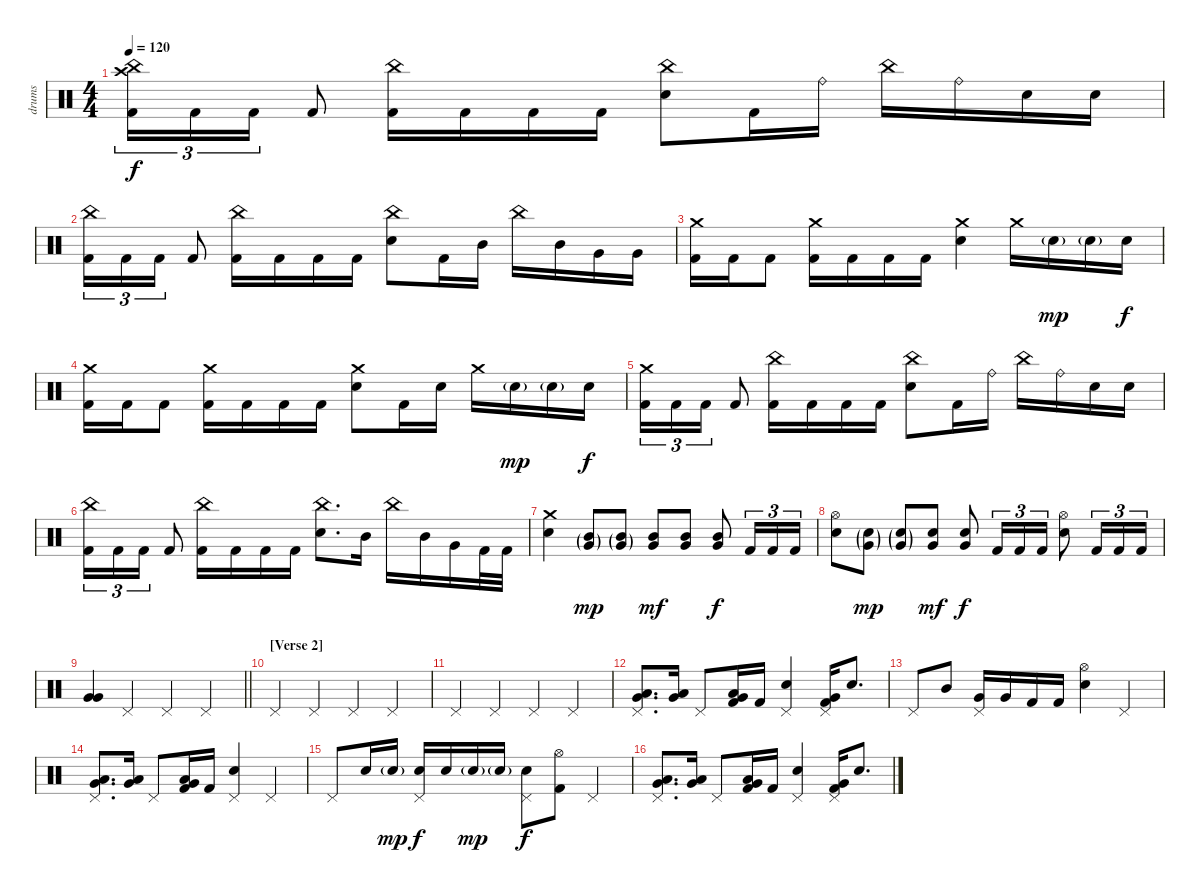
\track ("drums" "drums") {instrument percussion}
\staff {score}
\articulation defaults
\ts (4 4)
\tempo 120
\clef neutral
\ks c
("China (hit)" "Crash high (hit)" "Kick (hit) 2").16{tu (3 2) dy f} "Kick (hit) 2".16{tu (3 2)} "Kick (hit) 2".16{tu (3 2)} "Kick (hit) 2".8 ("China (hit)" "Kick (hit) 2").16 "Kick (hit) 2".16 "Kick (hit) 2".16 "Kick (hit) 2".16 ("China (hit)" "Electric Snare (hit)").8 "Kick (hit) 2".16 "Ride (bell)".16 "China (hit)".16 "Ride (bell)".16 "Electric Snare (hit)".16 "Electric Snare (hit)".16 |
("China (hit)" "Kick (hit) 2").16{tu (3 2)} "Kick (hit) 2".16{tu (3 2)} "Kick (hit) 2".16{tu (3 2)} "Kick (hit) 2".8 ("China (hit)" "Kick (hit) 2").16 "Kick (hit) 2".16 "Kick (hit) 2".16 "Kick (hit) 2".16 ("China (hit)" "Electric Snare (hit)").8 "Kick (hit) 2".16 "Mid Tom (hit)".16 "China (hit)".16 "Mid Tom (hit)".16 "Very Low Tom (hit)".16 "Very Low Tom (hit)".16 |
("Crash medium (hit)" "Kick (hit) 2").16 "Kick (hit) 2".16 "Kick (hit) 2".8 ("Crash medium (hit)" "Kick (hit) 2").16 "Kick (hit) 2".16 "Kick (hit) 2".16 "Kick (hit) 2".16 ("Crash medium (hit)" "Electric Snare (hit)").4 "Crash medium (hit)".16 "Electric Snare (hit)"{g}.16{dy mp} "Electric Snare (hit)"{g}.16 "Electric Snare (hit)".16{dy f} |
("Crash medium (hit)" "Kick (hit) 2").16 "Kick (hit) 2".16 "Kick (hit) 2".8 ("Crash medium (hit)" "Kick (hit) 2").16 "Kick (hit) 2".16 "Kick (hit) 2".16 "Kick (hit) 2".16 ("Crash medium (hit)" "Electric Snare (hit)").8 "Kick (hit) 2".16 "Electric Snare (hit)".16 "Crash medium (hit)".16 "Electric Snare (hit)"{g}.16{dy mp} "Electric Snare (hit)"{g}.16 "Electric Snare (hit)".16{dy f} |
("Crash medium (hit)" "Kick (hit) 2").16{tu (3 2)} "Kick (hit) 2".16{tu (3 2)} "Kick (hit) 2".16{tu (3 2)} "Kick (hit) 2".8 ("China (hit)" "Kick (hit) 2").16 "Kick (hit) 2".16 "Kick (hit) 2".16 "Kick (hit) 2".16 ("China (hit)" "Electric Snare (hit)").8 "Kick (hit) 2".16 "Ride (bell)".16 "China (hit)".16 "Ride (bell)".16 "Electric Snare (hit)".16 "Electric Snare (hit)".16 |
("China (hit)" "Kick (hit) 2").16{tu (3 2)} "Kick (hit) 2".16{tu (3 2)} "Kick (hit) 2".16{tu (3 2)} "Kick (hit) 2".8 ("China (hit)" "Kick (hit) 2").16 "Kick (hit) 2".16 "Kick (hit) 2".16 "Kick (hit) 2".16 ("China (hit)" "Electric Snare (hit)").8{d} "Mid Tom (hit)".16 "China (hit)".16 "Mid Tom (hit)".16 "Very Low Tom (hit)".16 "Kick (hit) 2".32 "Kick (hit) 2".32 |
("Crash medium (hit)" "Electric Snare (hit)").4 ("Very Low Tom (hit)"{g} "Mid Tom (hit)"{g}).8{dy mp} ("Very Low Tom (hit)"{g} "Mid Tom (hit)"{g}).8 ("Very Low Tom (hit)" "Mid Tom (hit)").8{dy mf} ("Very Low Tom (hit)" "Mid Tom (hit)").8 ("Very Low Tom (hit)" "Mid Tom (hit)").8{dy f} "Kick (hit) 2".16{tu (3 2)} "Kick (hit) 2".16{tu (3 2)} "Kick (hit) 2".16{tu (3 2)} |
("Hi-Hat (open)" "Electric Snare (hit)").8 ("Very Low Tom (hit)"{g} "Electric Snare (hit)"{g}).8{dy mp} ("Very Low Tom (hit)"{g} "Electric Snare (hit)"{g}).8 ("Very Low Tom (hit)" "Electric Snare (hit)").8{dy mf} ("Very Low Tom (hit)" "Electric Snare (hit)").8{dy f} "Kick (hit) 2".16{tu (3 2)} "Kick (hit) 2".16{tu (3 2)} "Kick (hit) 2".16{tu (3 2)} ("Hi-Hat (open)" "Electric Snare (hit)").8 "Kick (hit) 2".16{tu (3 2)} "Kick (hit) 2".16{tu (3 2)} "Kick (hit) 2".16{tu (3 2)} |
\barLineRight lightlight
("Very Low Tom (hit)" "Very Low Tom (hit)").4 "Pedal Hi-Hat (hit)".4 "Pedal Hi-Hat (hit)".4 "Pedal Hi-Hat (hit)".4 |
\section ("" "[Verse 2]")
"Pedal Hi-Hat (hit)".4 "Pedal Hi-Hat (hit)".4 "Pedal Hi-Hat (hit)".4 "Pedal Hi-Hat (hit)".4 |
"Pedal Hi-Hat (hit)".4 "Pedal Hi-Hat (hit)".4 "Pedal Hi-Hat (hit)".4 "Pedal Hi-Hat (hit)".4 |
("Pedal Hi-Hat (hit)" "Very Low Tom (hit)" "Low Tom (hit)").8{d} ("Very Low Tom (hit)" "Low Tom (hit)").16 "Pedal Hi-Hat (hit)".8 ("Very Low Tom (hit)" "Low Tom (hit)" "Kick (hit) 2").16 "Kick (hit) 2".16 ("Pedal Hi-Hat (hit)" "Electric Snare (hit)").4 ("Pedal Hi-Hat (hit)" "Very Low Tom (hit)" "Kick (hit) 2").16 "Electric Snare (hit)".8{d} |
"Pedal Hi-Hat (hit)".8 "Mid Tom (hit)".8 ("Pedal Hi-Hat (hit)" "Very Low Tom (hit)").16 "Very Low Tom (hit)".16 "Kick (hit) 2".16 "Kick (hit) 2".16 ("Hi-Hat (open)" "Electric Snare (hit)").4 "Pedal Hi-Hat (hit)".4 |
("Pedal Hi-Hat (hit)" "Very Low Tom (hit)" "Low Tom (hit)").8{d} ("Very Low Tom (hit)" "Low Tom (hit)").16 "Pedal Hi-Hat (hit)".8 ("Very Low Tom (hit)" "Low Tom (hit)" "Kick (hit) 2").16 "Kick (hit) 2".16 ("Pedal Hi-Hat (hit)" "Electric Snare (hit)").4 "Pedal Hi-Hat (hit)".4 |
"Pedal Hi-Hat (hit)".8 "Electric Snare (hit)".16 "Electric Snare (hit)"{g}.16{dy mp} ("Pedal Hi-Hat (hit)" "Electric Snare (hit)").16{dy f} "Electric Snare (hit)".16 "Electric Snare (hit)"{g}.16{dy mp} "Electric Snare (hit)"{g}.16 ("Pedal Hi-Hat (hit)" "Electric Snare (hit)").8{dy f} ("Hi-Hat (open)" "Kick (hit) 2").8 "Pedal Hi-Hat (hit)".4 |
("Pedal Hi-Hat (hit)" "Very Low Tom (hit)" "Low Tom (hit)").8{d} ("Very Low Tom (hit)" "Low Tom (hit)").16 "Pedal Hi-Hat (hit)".8 ("Very Low Tom (hit)" "Low Tom (hit)" "Kick (hit) 2").16 "Kick (hit) 2".16 ("Pedal Hi-Hat (hit)" "Electric Snare (hit)").4 ("Pedal Hi-Hat (hit)" "Very Low Tom (hit)" "Kick (hit) 2").16 "Electric Snare (hit)".8{d}
